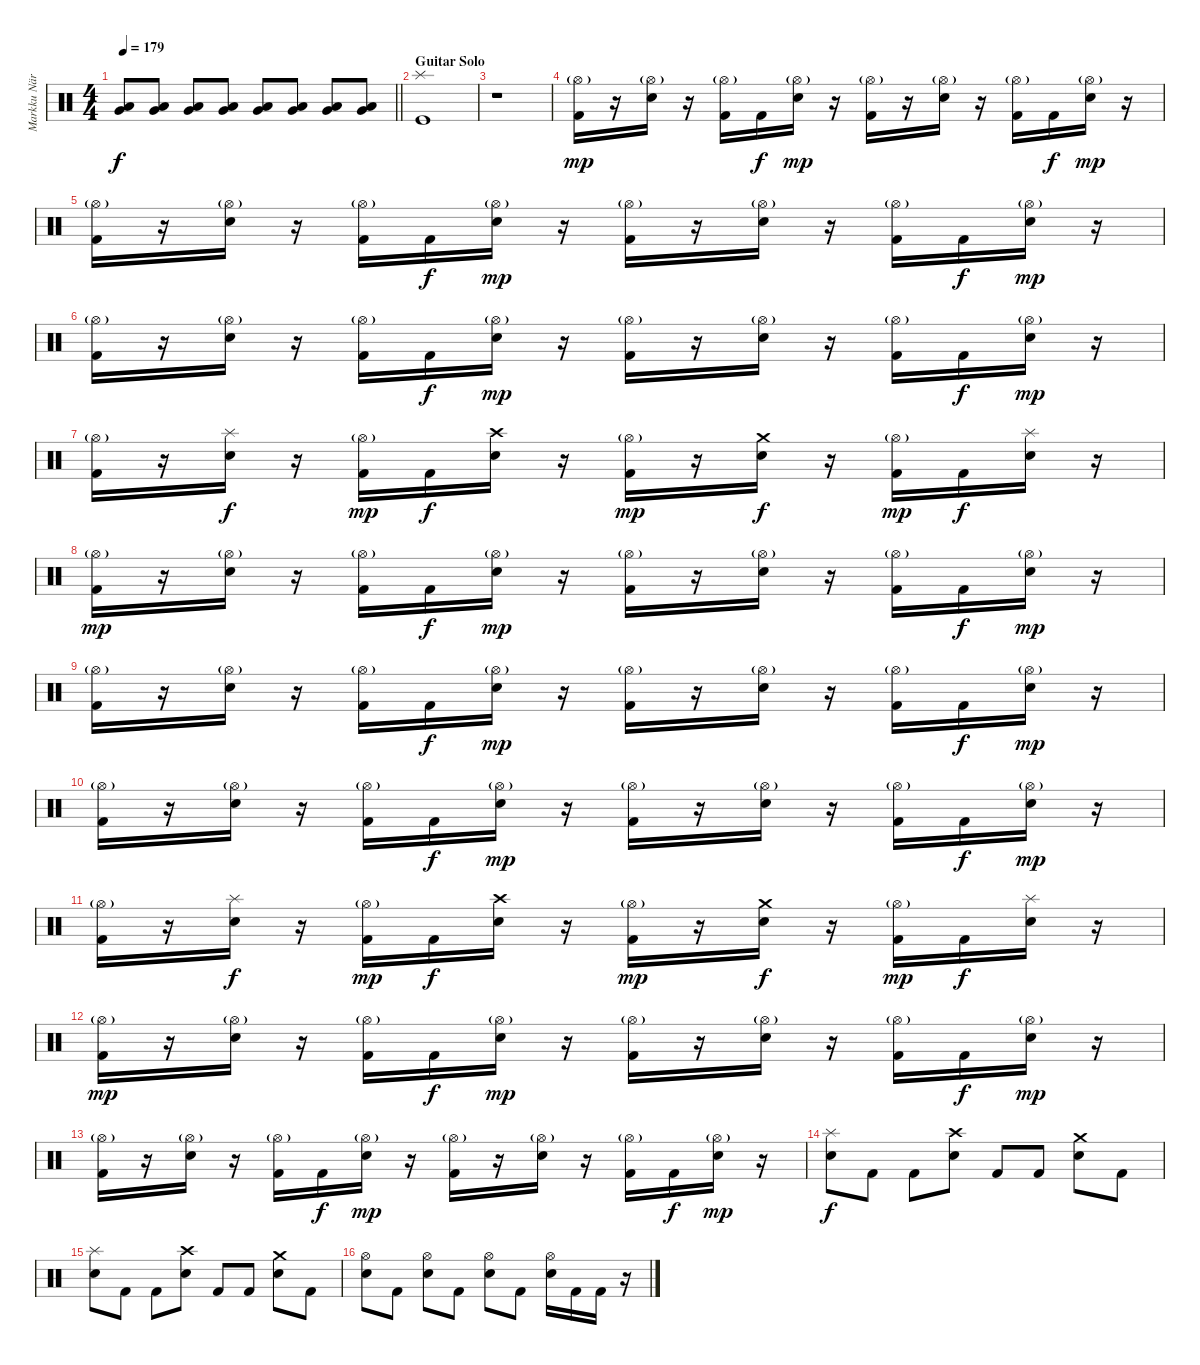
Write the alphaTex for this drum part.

\track ("Markku Näreneva (Drums)" "Markku När") {instrument percussion}
\staff {score}
\articulation defaults
\ts (4 4)
\tempo 179
\clef neutral
\barLineRight lightlight
\ks c
("Low Tom (hit)" "Very Low Tom (hit)").8{dy f} ("Low Tom (hit)" "Very Low Tom (hit)").8 ("Low Tom (hit)" "Very Low Tom (hit)").8 ("Low Tom (hit)" "Very Low Tom (hit)").8 ("Low Tom (hit)" "Very Low Tom (hit)").8 ("Low Tom (hit)" "Very Low Tom (hit)").8 ("Low Tom (hit)" "Very Low Tom (hit)").8 ("Low Tom (hit)" "Very Low Tom (hit)").8 |
\section ("" "Guitar Solo")
("Kick (hit)" "Splash (hit)").1 |
r.1 |
("Kick (hit) 2" "Hi-Hat (open)"{g}).16{dy mp} r.16 ("Snare (hit) 2" "Hi-Hat (open)"{g}).16 r.16 ("Kick (hit) 2" "Hi-Hat (open)"{g}).16 "Kick (hit) 2".16{dy f} ("Snare (hit) 2" "Hi-Hat (open)"{g}).16{dy mp} r.16 ("Kick (hit) 2" "Hi-Hat (open)"{g}).16 r.16 ("Snare (hit) 2" "Hi-Hat (open)"{g}).16 r.16 ("Kick (hit) 2" "Hi-Hat (open)"{g}).16 "Kick (hit) 2".16{dy f} ("Snare (hit) 2" "Hi-Hat (open)"{g}).16{dy mp} r.16 |
("Kick (hit) 2" "Hi-Hat (open)"{g}).16 r.16 ("Snare (hit) 2" "Hi-Hat (open)"{g}).16 r.16 ("Kick (hit) 2" "Hi-Hat (open)"{g}).16 "Kick (hit) 2".16{dy f} ("Snare (hit) 2" "Hi-Hat (open)"{g}).16{dy mp} r.16 ("Kick (hit) 2" "Hi-Hat (open)"{g}).16 r.16 ("Snare (hit) 2" "Hi-Hat (open)"{g}).16 r.16 ("Kick (hit) 2" "Hi-Hat (open)"{g}).16 "Kick (hit) 2".16{dy f} ("Snare (hit) 2" "Hi-Hat (open)"{g}).16{dy mp} r.16 |
("Kick (hit) 2" "Hi-Hat (open)"{g}).16 r.16 ("Snare (hit) 2" "Hi-Hat (open)"{g}).16 r.16 ("Kick (hit) 2" "Hi-Hat (open)"{g}).16 "Kick (hit) 2".16{dy f} ("Snare (hit) 2" "Hi-Hat (open)"{g}).16{dy mp} r.16 ("Kick (hit) 2" "Hi-Hat (open)"{g}).16 r.16 ("Snare (hit) 2" "Hi-Hat (open)"{g}).16 r.16 ("Kick (hit) 2" "Hi-Hat (open)"{g}).16 "Kick (hit) 2".16{dy f} ("Snare (hit) 2" "Hi-Hat (open)"{g}).16{dy mp} r.16 |
("Kick (hit) 2" "Hi-Hat (open)"{g}).16 r.16 ("Snare (hit) 2" "Splash (hit)").16{dy f} r.16 ("Kick (hit) 2" "Hi-Hat (open)"{g}).16{dy mp} "Kick (hit) 2".16{dy f} ("Snare (hit) 2" "Crash high (hit)").16 r.16 ("Kick (hit) 2" "Hi-Hat (open)"{g}).16{dy mp} r.16 ("Snare (hit) 2" "Crash medium (hit)").16{dy f} r.16 ("Kick (hit) 2" "Hi-Hat (open)"{g}).16{dy mp} "Kick (hit) 2".16{dy f} ("Snare (hit) 2" "Splash (hit)").16 r.16 |
("Kick (hit) 2" "Hi-Hat (open)"{g}).16{dy mp} r.16 ("Snare (hit) 2" "Hi-Hat (open)"{g}).16 r.16 ("Kick (hit) 2" "Hi-Hat (open)"{g}).16 "Kick (hit) 2".16{dy f} ("Snare (hit) 2" "Hi-Hat (open)"{g}).16{dy mp} r.16 ("Kick (hit) 2" "Hi-Hat (open)"{g}).16 r.16 ("Snare (hit) 2" "Hi-Hat (open)"{g}).16 r.16 ("Kick (hit) 2" "Hi-Hat (open)"{g}).16 "Kick (hit) 2".16{dy f} ("Snare (hit) 2" "Hi-Hat (open)"{g}).16{dy mp} r.16 |
("Kick (hit) 2" "Hi-Hat (open)"{g}).16 r.16 ("Snare (hit) 2" "Hi-Hat (open)"{g}).16 r.16 ("Kick (hit) 2" "Hi-Hat (open)"{g}).16 "Kick (hit) 2".16{dy f} ("Snare (hit) 2" "Hi-Hat (open)"{g}).16{dy mp} r.16 ("Kick (hit) 2" "Hi-Hat (open)"{g}).16 r.16 ("Snare (hit) 2" "Hi-Hat (open)"{g}).16 r.16 ("Kick (hit) 2" "Hi-Hat (open)"{g}).16 "Kick (hit) 2".16{dy f} ("Snare (hit) 2" "Hi-Hat (open)"{g}).16{dy mp} r.16 |
("Kick (hit) 2" "Hi-Hat (open)"{g}).16 r.16 ("Snare (hit) 2" "Hi-Hat (open)"{g}).16 r.16 ("Kick (hit) 2" "Hi-Hat (open)"{g}).16 "Kick (hit) 2".16{dy f} ("Snare (hit) 2" "Hi-Hat (open)"{g}).16{dy mp} r.16 ("Kick (hit) 2" "Hi-Hat (open)"{g}).16 r.16 ("Snare (hit) 2" "Hi-Hat (open)"{g}).16 r.16 ("Kick (hit) 2" "Hi-Hat (open)"{g}).16 "Kick (hit) 2".16{dy f} ("Snare (hit) 2" "Hi-Hat (open)"{g}).16{dy mp} r.16 |
("Kick (hit) 2" "Hi-Hat (open)"{g}).16 r.16 ("Snare (hit) 2" "Splash (hit)").16{dy f} r.16 ("Kick (hit) 2" "Hi-Hat (open)"{g}).16{dy mp} "Kick (hit) 2".16{dy f} ("Snare (hit) 2" "Crash high (hit)").16 r.16 ("Kick (hit) 2" "Hi-Hat (open)"{g}).16{dy mp} r.16 ("Snare (hit) 2" "Crash medium (hit)").16{dy f} r.16 ("Kick (hit) 2" "Hi-Hat (open)"{g}).16{dy mp} "Kick (hit) 2".16{dy f} ("Snare (hit) 2" "Splash (hit)").16 r.16 |
("Kick (hit) 2" "Hi-Hat (open)"{g}).16{dy mp} r.16 ("Snare (hit) 2" "Hi-Hat (open)"{g}).16 r.16 ("Kick (hit) 2" "Hi-Hat (open)"{g}).16 "Kick (hit) 2".16{dy f} ("Snare (hit) 2" "Hi-Hat (open)"{g}).16{dy mp} r.16 ("Kick (hit) 2" "Hi-Hat (open)"{g}).16 r.16 ("Snare (hit) 2" "Hi-Hat (open)"{g}).16 r.16 ("Kick (hit) 2" "Hi-Hat (open)"{g}).16 "Kick (hit) 2".16{dy f} ("Snare (hit) 2" "Hi-Hat (open)"{g}).16{dy mp} r.16 |
("Kick (hit) 2" "Hi-Hat (open)"{g}).16 r.16 ("Snare (hit) 2" "Hi-Hat (open)"{g}).16 r.16 ("Kick (hit) 2" "Hi-Hat (open)"{g}).16 "Kick (hit) 2".16{dy f} ("Snare (hit) 2" "Hi-Hat (open)"{g}).16{dy mp} r.16 ("Kick (hit) 2" "Hi-Hat (open)"{g}).16 r.16 ("Snare (hit) 2" "Hi-Hat (open)"{g}).16 r.16 ("Kick (hit) 2" "Hi-Hat (open)"{g}).16 "Kick (hit) 2".16{dy f} ("Snare (hit) 2" "Hi-Hat (open)"{g}).16{dy mp} r.16 |
("Snare (hit) 2" "Splash (hit)").8{dy f} "Kick (hit) 2".8 "Kick (hit) 2".8 ("Snare (hit) 2" "Crash high (hit)").8 "Kick (hit) 2".8 "Kick (hit) 2".8 ("Snare (hit) 2" "Crash medium (hit)").8 "Kick (hit) 2".8 |
("Snare (hit) 2" "Splash (hit)").8 "Kick (hit) 2".8 "Kick (hit) 2".8 ("Snare (hit) 2" "Crash high (hit)").8 "Kick (hit) 2".8 "Kick (hit) 2".8 ("Snare (hit) 2" "Crash medium (hit)").8 "Kick (hit) 2".8 |
("Snare (hit) 2" "Hi-Hat (open)").8 "Kick (hit) 2".8 ("Snare (hit) 2" "Hi-Hat (open)").8 "Kick (hit) 2".8 ("Snare (hit) 2" "Hi-Hat (open)").8 "Kick (hit) 2".8 ("Snare (hit) 2" "Hi-Hat (open)").16 "Kick (hit) 2".16 "Kick (hit) 2".16 r.16
